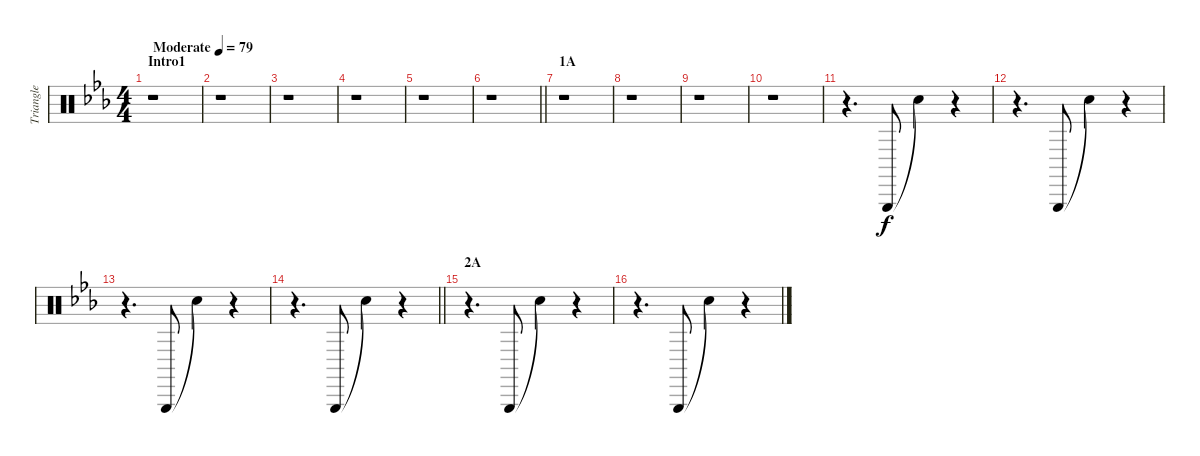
\track ("Triangle" "Triangle") {instrument percussion}
\staff {score}
\articulation defaults
\ts (4 4)
\section ("" "Intro1")
\tempo (79 "Moderate")
\clef neutral
\ks eb
r.1{dy f} |
r.1 |
r.1 |
r.1 |
r.1 |
\barLineRight lightlight
r.1 |
\section ("" "1A")
r.1 |
r.1 |
r.1 |
r.1 |
r.4{d} "Triangle (hit)".8 "Snare (hit)"{t}.4 r.4 |
r.4{d} "Triangle (hit)".8 "Snare (hit)"{t}.4 r.4 |
r.4{d} "Triangle (hit)".8 "Snare (hit)"{t}.4 r.4 |
\barLineRight lightlight
r.4{d} "Triangle (hit)".8 "Snare (hit)"{t}.4 r.4 |
\section ("" "2A")
r.4{d} "Triangle (hit)".8 "Snare (hit)"{t}.4 r.4 |
r.4{d} "Triangle (hit)".8 "Snare (hit)"{t}.4 r.4
